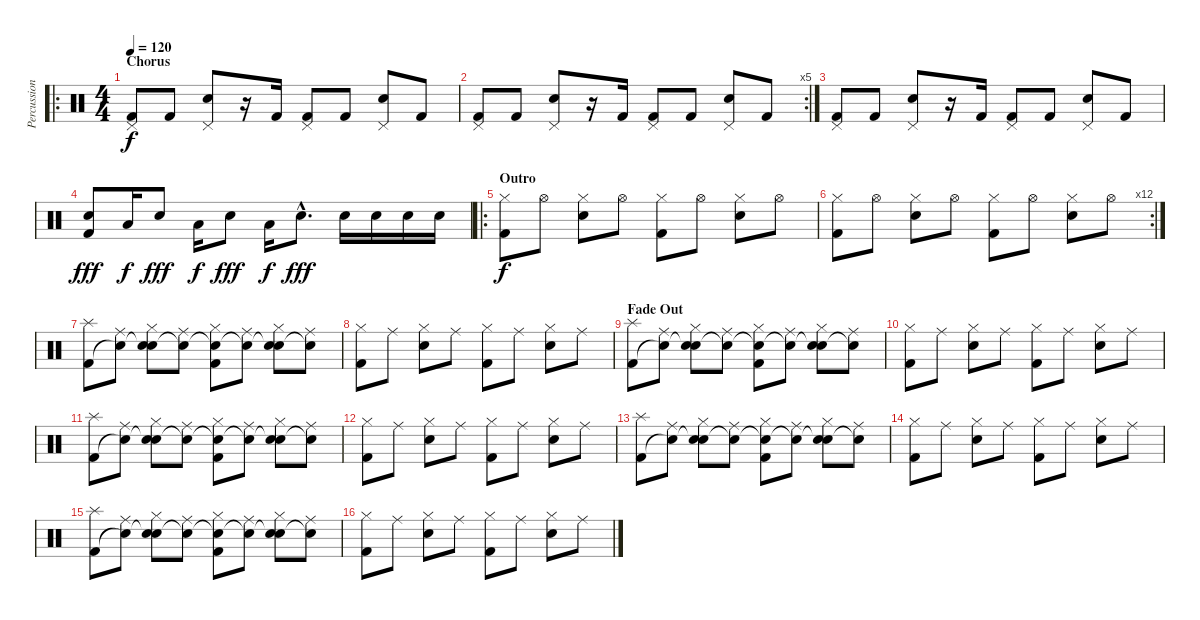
\track ("Percussion" "Percussion") {instrument percussion}
\staff {score}
\articulation defaults
\ro
\ts (4 4)
\section ("" "Chorus")
\tempo 120
\clef neutral
\ks c
("Pedal Hi-Hat (hit)" "Kick (hit) 2").8{dy f} "Kick (hit) 2".8 ("Pedal Hi-Hat (hit)" "Electric Snare (hit)").8 r.16 "Kick (hit) 2".16 ("Pedal Hi-Hat (hit)" "Kick (hit) 2").8 "Kick (hit) 2".8 ("Pedal Hi-Hat (hit)" "Electric Snare (hit)").8 "Kick (hit) 2".8 |
\rc 5
("Pedal Hi-Hat (hit)" "Kick (hit) 2").8 "Kick (hit) 2".8 ("Pedal Hi-Hat (hit)" "Electric Snare (hit)").8 r.16 "Kick (hit) 2".16 ("Pedal Hi-Hat (hit)" "Kick (hit) 2").8 "Kick (hit) 2".8 ("Pedal Hi-Hat (hit)" "Electric Snare (hit)").8 "Kick (hit) 2".8 |
("Pedal Hi-Hat (hit)" "Kick (hit) 2").8 "Kick (hit) 2".8 ("Pedal Hi-Hat (hit)" "Electric Snare (hit)").8 r.16 "Kick (hit) 2".16 ("Pedal Hi-Hat (hit)" "Kick (hit) 2").8 "Kick (hit) 2".8 ("Pedal Hi-Hat (hit)" "Electric Snare (hit)").8 "Kick (hit) 2".8 |
("Electric Snare (hit)" "Kick (hit) 2").8{dy fff} "Low Floor Tom (hit)".16{dy f} "Electric Snare (hit)".8{dy fff} "Low Floor Tom (hit)".16{dy f} "Electric Snare (hit)".8{dy fff} "Low Floor Tom (hit)".16{dy f} "Electric Snare (hit)"{hac}.8{d dy fff} "Electric Snare (hit)".16 "Electric Snare (hit)".16 "Electric Snare (hit)".16 "Electric Snare (hit)".16 |
\ro
\section ("" "Outro")
("Hi-Hat (closed)" "Kick (hit) 2").8{dy f} "Hi-Hat (open)".8 ("Hi-Hat (closed)" "Electric Snare (hit)").8 "Hi-Hat (open)".8 ("Hi-Hat (closed)" "Kick (hit) 2").8 "Hi-Hat (open)".8 ("Hi-Hat (closed)" "Electric Snare (hit)").8 "Hi-Hat (open)".8 |
\rc 12
("Hi-Hat (closed)" "Kick (hit) 2").8 "Hi-Hat (open)".8 ("Hi-Hat (closed)" "Electric Snare (hit)").8 "Hi-Hat (open)".8 ("Hi-Hat (closed)" "Kick (hit) 2").8 "Hi-Hat (open)".8 ("Hi-Hat (closed)" "Electric Snare (hit)").8 "Hi-Hat (open)".8 |
("Splash (hit)" "Kick (hit) 2").8 ("Ride (middle)" "Snare (hit)"{t}).8 ("Hi-Hat (closed)" "Snare (hit)"{t} "Electric Snare (hit)").8 ("Ride (middle)" "Snare (hit)"{t}).8 ("Hi-Hat (closed)" "Snare (hit)"{t} "Kick (hit) 2").8 ("Ride (middle)" "Snare (hit)"{t}).8 ("Hi-Hat (closed)" "Snare (hit)"{t} "Electric Snare (hit)").8 ("Ride (middle)" "Snare (hit)"{t}).8 |
("Hi-Hat (closed)" "Kick (hit) 2").8 "Ride (middle)".8 ("Hi-Hat (closed)" "Electric Snare (hit)").8 "Ride (middle)".8 ("Hi-Hat (closed)" "Kick (hit) 2").8 "Ride (middle)".8 ("Hi-Hat (closed)" "Electric Snare (hit)").8 "Ride (middle)".8 |
\section ("" "Fade Out")
("Splash (hit)" "Kick (hit) 2").8 ("Ride (middle)" "Snare (hit)"{t}).8 ("Hi-Hat (closed)" "Snare (hit)"{t} "Electric Snare (hit)").8 ("Ride (middle)" "Snare (hit)"{t}).8 ("Hi-Hat (closed)" "Snare (hit)"{t} "Kick (hit) 2").8 ("Ride (middle)" "Snare (hit)"{t}).8 ("Hi-Hat (closed)" "Snare (hit)"{t} "Electric Snare (hit)").8 ("Ride (middle)" "Snare (hit)"{t}).8 |
("Hi-Hat (closed)" "Kick (hit) 2").8 "Ride (middle)".8 ("Hi-Hat (closed)" "Electric Snare (hit)").8 "Ride (middle)".8 ("Hi-Hat (closed)" "Kick (hit) 2").8 "Ride (middle)".8 ("Hi-Hat (closed)" "Electric Snare (hit)").8 "Ride (middle)".8 |
("Splash (hit)" "Kick (hit) 2").8 ("Ride (middle)" "Snare (hit)"{t}).8 ("Hi-Hat (closed)" "Snare (hit)"{t} "Electric Snare (hit)").8 ("Ride (middle)" "Snare (hit)"{t}).8 ("Hi-Hat (closed)" "Snare (hit)"{t} "Kick (hit) 2").8 ("Ride (middle)" "Snare (hit)"{t}).8 ("Hi-Hat (closed)" "Snare (hit)"{t} "Electric Snare (hit)").8 ("Ride (middle)" "Snare (hit)"{t}).8 |
("Hi-Hat (closed)" "Kick (hit) 2").8 "Ride (middle)".8 ("Hi-Hat (closed)" "Electric Snare (hit)").8 "Ride (middle)".8 ("Hi-Hat (closed)" "Kick (hit) 2").8 "Ride (middle)".8 ("Hi-Hat (closed)" "Electric Snare (hit)").8 "Ride (middle)".8 |
("Splash (hit)" "Kick (hit) 2").8 ("Ride (middle)" "Snare (hit)"{t}).8 ("Hi-Hat (closed)" "Snare (hit)"{t} "Electric Snare (hit)").8 ("Ride (middle)" "Snare (hit)"{t}).8 ("Hi-Hat (closed)" "Snare (hit)"{t} "Kick (hit) 2").8 ("Ride (middle)" "Snare (hit)"{t}).8 ("Hi-Hat (closed)" "Snare (hit)"{t} "Electric Snare (hit)").8 ("Ride (middle)" "Snare (hit)"{t}).8 |
("Hi-Hat (closed)" "Kick (hit) 2").8 "Ride (middle)".8 ("Hi-Hat (closed)" "Electric Snare (hit)").8 "Ride (middle)".8 ("Hi-Hat (closed)" "Kick (hit) 2").8 "Ride (middle)".8 ("Hi-Hat (closed)" "Electric Snare (hit)").8 "Ride (middle)".8 |
("Splash (hit)" "Kick (hit) 2").8{volume 0} ("Ride (middle)" "Snare (hit)"{t}).8 ("Hi-Hat (closed)" "Snare (hit)"{t} "Electric Snare (hit)").8 ("Ride (middle)" "Snare (hit)"{t}).8 ("Hi-Hat (closed)" "Snare (hit)"{t} "Kick (hit) 2").8 ("Ride (middle)" "Snare (hit)"{t}).8 ("Hi-Hat (closed)" "Snare (hit)"{t} "Electric Snare (hit)").8 ("Ride (middle)" "Snare (hit)"{t}).8 |
("Hi-Hat (closed)" "Kick (hit) 2").8 "Ride (middle)".8 ("Hi-Hat (closed)" "Electric Snare (hit)").8 "Ride (middle)".8 ("Hi-Hat (closed)" "Kick (hit) 2").8 "Ride (middle)".8 ("Hi-Hat (closed)" "Electric Snare (hit)").8 "Ride (middle)".8
